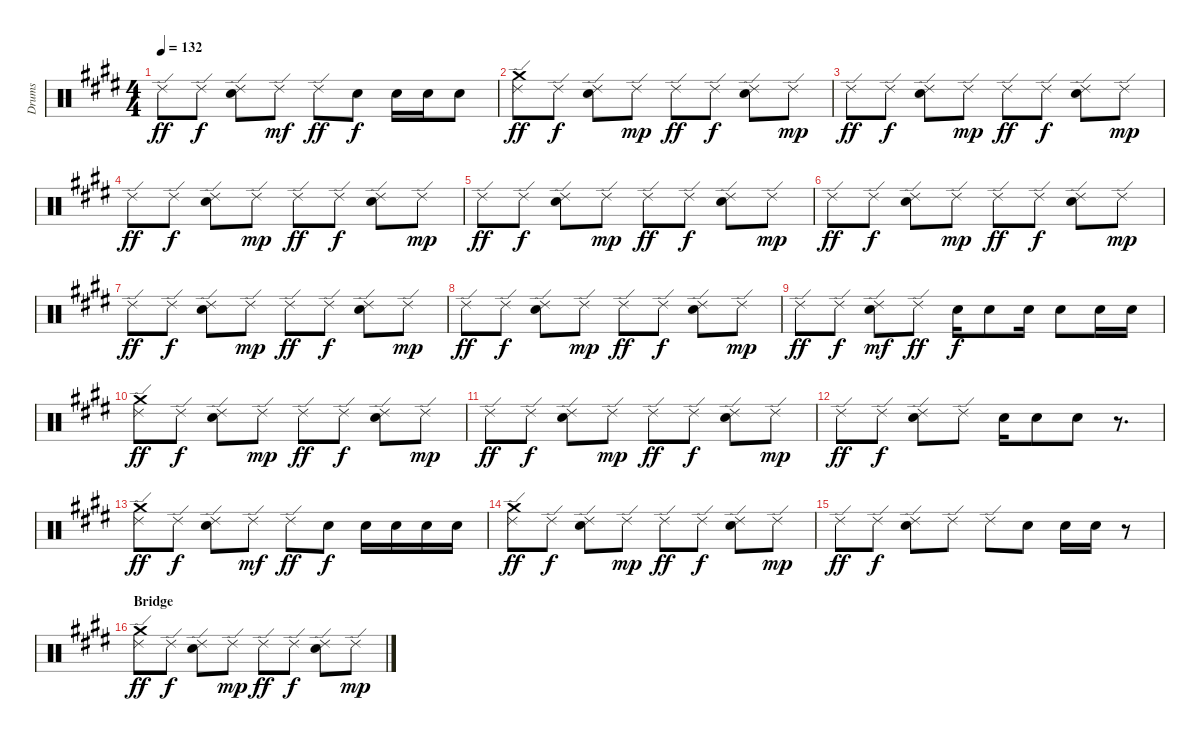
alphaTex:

\track ("Drums" "Drums") {instrument percussion}
\staff {score}
\articulation defaults
\ts (4 4)
\tempo 132
\clef neutral
\ks e "Ride (edge) 2".8{dy ff} "Ride (edge) 2".8{dy f}
("Electric Snare (hit)" "Ride (edge) 2").8 "Ride (edge) 2".8{dy mf} "Ride (edge) 2".8{dy ff} "Electric Snare (hit)".8{dy f} "Electric Snare (hit)".16 "Electric Snare (hit)".16 "Electric Snare (hit)".8 |
("Crash medium (hit)" "Ride (edge) 2").8{dy ff} "Ride (edge) 2".8{dy f} ("Electric Snare (hit)" "Ride (edge) 2").8 "Ride (edge) 2".8{dy mp} "Ride (edge) 2".8{dy ff} "Ride (edge) 2".8{dy f} ("Electric Snare (hit)" "Ride (edge) 2").8 "Ride (edge) 2".8{dy mp} |
"Ride (edge) 2".8{dy ff} "Ride (edge) 2".8{dy f} ("Electric Snare (hit)" "Ride (edge) 2").8 "Ride (edge) 2".8{dy mp} "Ride (edge) 2".8{dy ff} "Ride (edge) 2".8{dy f} ("Electric Snare (hit)" "Ride (edge) 2").8 "Ride (edge) 2".8{dy mp} |
"Ride (edge) 2".8{dy ff} "Ride (edge) 2".8{dy f} ("Electric Snare (hit)" "Ride (edge) 2").8 "Ride (edge) 2".8{dy mp} "Ride (edge) 2".8{dy ff} "Ride (edge) 2".8{dy f} ("Electric Snare (hit)" "Ride (edge) 2").8 "Ride (edge) 2".8{dy mp} |
"Ride (edge) 2".8{dy ff} "Ride (edge) 2".8{dy f} ("Electric Snare (hit)" "Ride (edge) 2").8 "Ride (edge) 2".8{dy mp} "Ride (edge) 2".8{dy ff} "Ride (edge) 2".8{dy f} ("Electric Snare (hit)" "Ride (edge) 2").8 "Ride (edge) 2".8{dy mp} |
"Ride (edge) 2".8{dy ff} "Ride (edge) 2".8{dy f} ("Electric Snare (hit)" "Ride (edge) 2").8 "Ride (edge) 2".8{dy mp} "Ride (edge) 2".8{dy ff} "Ride (edge) 2".8{dy f} ("Electric Snare (hit)" "Ride (edge) 2").8 "Ride (edge) 2".8{dy mp} |
"Ride (edge) 2".8{dy ff} "Ride (edge) 2".8{dy f} ("Electric Snare (hit)" "Ride (edge) 2").8 "Ride (edge) 2".8{dy mp} "Ride (edge) 2".8{dy ff} "Ride (edge) 2".8{dy f} ("Electric Snare (hit)" "Ride (edge) 2").8 "Ride (edge) 2".8{dy mp} |
"Ride (edge) 2".8{dy ff} "Ride (edge) 2".8{dy f} ("Electric Snare (hit)" "Ride (edge) 2").8 "Ride (edge) 2".8{dy mp} "Ride (edge) 2".8{dy ff} "Ride (edge) 2".8{dy f} ("Electric Snare (hit)" "Ride (edge) 2").8 "Ride (edge) 2".8{dy mp} |
"Ride (edge) 2".8{dy ff} "Ride (edge) 2".8{dy f} ("Electric Snare (hit)" "Ride (edge) 2").8{dy mf} "Ride (edge) 2".8{dy ff} "Electric Snare (hit)".16{dy f} "Electric Snare (hit)".8 "Electric Snare (hit)".16 "Electric Snare (hit)".8 "Electric Snare (hit)".16 "Electric Snare (hit)".16 |
("Crash medium (hit)" "Ride (edge) 2").8{dy ff} "Ride (edge) 2".8{dy f} ("Electric Snare (hit)" "Ride (edge) 2").8 "Ride (edge) 2".8{dy mp} "Ride (edge) 2".8{dy ff} "Ride (edge) 2".8{dy f} ("Electric Snare (hit)" "Ride (edge) 2").8 "Ride (edge) 2".8{dy mp} |
"Ride (edge) 2".8{dy ff} "Ride (edge) 2".8{dy f} ("Electric Snare (hit)" "Ride (edge) 2").8 "Ride (edge) 2".8{dy mp} "Ride (edge) 2".8{dy ff} "Ride (edge) 2".8{dy f} ("Electric Snare (hit)" "Ride (edge) 2").8 "Ride (edge) 2".8{dy mp} |
"Ride (edge) 2".8{dy ff} "Ride (edge) 2".8{dy f} ("Electric Snare (hit)" "Ride (edge) 2").8 "Ride (edge) 2".8 "Electric Snare (hit)".16 "Electric Snare (hit)".8 "Electric Snare (hit)".8 r.8{d} |
("Crash medium (hit)" "Ride (edge) 2").8{dy ff} "Ride (edge) 2".8{dy f} ("Electric Snare (hit)" "Ride (edge) 2").8 "Ride (edge) 2".8{dy mf} "Ride (edge) 2".8{dy ff} "Electric Snare (hit)".8{dy f} "Electric Snare (hit)".16 "Electric Snare (hit)".16 "Electric Snare (hit)".16 "Electric Snare (hit)".16 |
("Crash medium (hit)" "Ride (edge) 2").8{dy ff} "Ride (edge) 2".8{dy f} ("Electric Snare (hit)" "Ride (edge) 2").8 "Ride (edge) 2".8{dy mp} "Ride (edge) 2".8{dy ff} "Ride (edge) 2".8{dy f} ("Electric Snare (hit)" "Ride (edge) 2").8 "Ride (edge) 2".8{dy mp} |
"Ride (edge) 2".8{dy ff} "Ride (edge) 2".8{dy f} ("Electric Snare (hit)" "Ride (edge) 2").8 "Ride (edge) 2".8 "Ride (edge) 2".8 "Electric Snare (hit)".8 "Electric Snare (hit)".16 "Electric Snare (hit)".16 r.8 |
\section ("" "Bridge")
("Crash medium (hit)" "Ride (edge) 2").8{dy ff} "Ride (edge) 2".8{dy f} ("Electric Snare (hit)" "Ride (edge) 2").8 "Ride (edge) 2".8{dy mp} "Ride (edge) 2".8{dy ff} "Ride (edge) 2".8{dy f} ("Electric Snare (hit)" "Ride (edge) 2").8 "Ride (edge) 2".8{dy mp}
